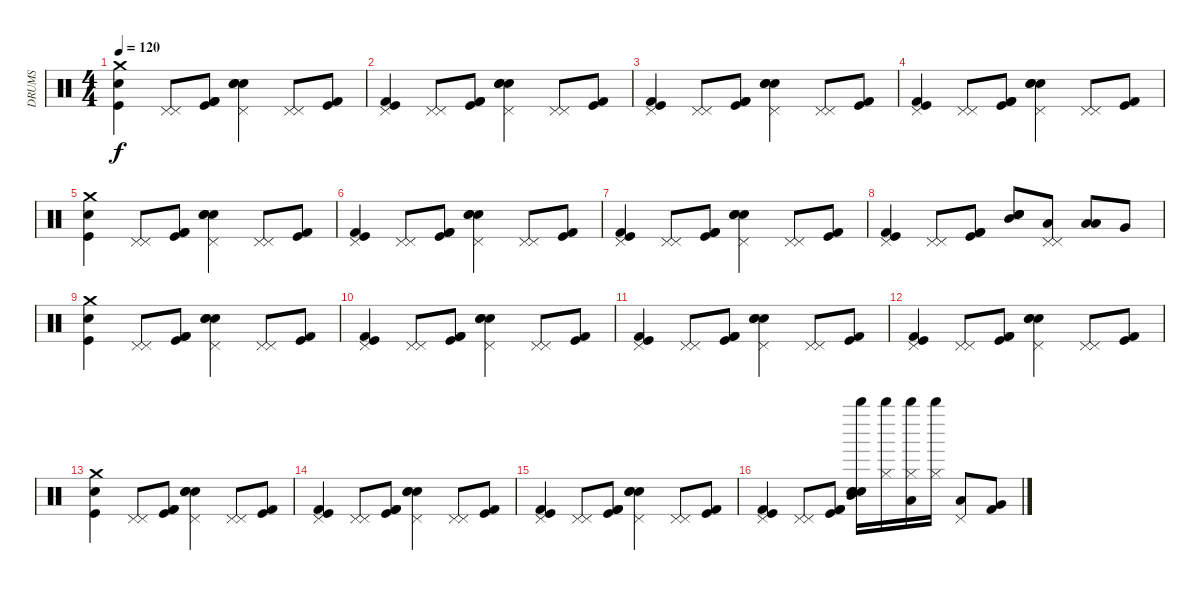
\track ("DRUMS" "DRUMS") {instrument percussion}
\staff {score}
\articulation defaults
\ts (4 4)
\tempo 120
\clef neutral
\ks c
("Crash medium (hit)" "Snare (hit) 2" "Kick (hit)").4{dy f} ("Pedal Hi-Hat (hit)" "Pedal Hi-Hat (hit)").8 ("Kick (hit) 2" "Kick (hit)" "Kick (hit) 2").8 ("Snare (hit) 2" "Snare (hit) 2" "Pedal Hi-Hat (hit)" "Electric Snare (hit)").4 ("Pedal Hi-Hat (hit)" "Pedal Hi-Hat (hit)").8 ("Kick (hit)" "Kick (hit) 2").8 |
("Pedal Hi-Hat (hit)" "Kick (hit) 2" "Kick (hit)").4 ("Pedal Hi-Hat (hit)" "Pedal Hi-Hat (hit)").8 ("Kick (hit) 2" "Kick (hit)" "Kick (hit) 2").8 ("Snare (hit) 2" "Snare (hit) 2" "Pedal Hi-Hat (hit)" "Electric Snare (hit)").4 ("Pedal Hi-Hat (hit)" "Pedal Hi-Hat (hit)").8 ("Kick (hit)" "Kick (hit) 2").8 |
("Pedal Hi-Hat (hit)" "Kick (hit) 2" "Kick (hit)").4 ("Pedal Hi-Hat (hit)" "Pedal Hi-Hat (hit)").8 ("Kick (hit) 2" "Kick (hit)" "Kick (hit) 2").8 ("Snare (hit) 2" "Snare (hit) 2" "Pedal Hi-Hat (hit)" "Electric Snare (hit)").4 ("Pedal Hi-Hat (hit)" "Pedal Hi-Hat (hit)").8 ("Kick (hit)" "Kick (hit) 2").8 |
("Pedal Hi-Hat (hit)" "Kick (hit) 2" "Kick (hit)").4 ("Pedal Hi-Hat (hit)" "Pedal Hi-Hat (hit)").8 ("Kick (hit) 2" "Kick (hit)" "Kick (hit) 2").8 ("Snare (hit) 2" "Snare (hit) 2" "Pedal Hi-Hat (hit)" "Electric Snare (hit)").4 ("Pedal Hi-Hat (hit)" "Pedal Hi-Hat (hit)").8 ("Kick (hit)" "Kick (hit) 2").8 |
("Crash medium (hit)" "Snare (hit) 2" "Kick (hit)").4 ("Pedal Hi-Hat (hit)" "Pedal Hi-Hat (hit)").8 ("Kick (hit) 2" "Kick (hit)" "Kick (hit) 2").8 ("Snare (hit) 2" "Snare (hit) 2" "Pedal Hi-Hat (hit)" "Electric Snare (hit)").4 ("Pedal Hi-Hat (hit)" "Pedal Hi-Hat (hit)").8 ("Kick (hit)" "Kick (hit) 2").8 |
("Pedal Hi-Hat (hit)" "Kick (hit) 2" "Kick (hit)").4 ("Pedal Hi-Hat (hit)" "Pedal Hi-Hat (hit)").8 ("Kick (hit) 2" "Kick (hit)" "Kick (hit) 2").8 ("Snare (hit) 2" "Snare (hit) 2" "Pedal Hi-Hat (hit)" "Electric Snare (hit)").4 ("Pedal Hi-Hat (hit)" "Pedal Hi-Hat (hit)").8 ("Kick (hit)" "Kick (hit) 2").8 |
("Pedal Hi-Hat (hit)" "Kick (hit) 2" "Kick (hit)").4 ("Pedal Hi-Hat (hit)" "Pedal Hi-Hat (hit)").8 ("Kick (hit) 2" "Kick (hit)" "Kick (hit) 2").8 ("Snare (hit) 2" "Snare (hit) 2" "Pedal Hi-Hat (hit)" "Electric Snare (hit)").4 ("Pedal Hi-Hat (hit)" "Pedal Hi-Hat (hit)").8 ("Kick (hit)" "Kick (hit) 2").8 |
("Pedal Hi-Hat (hit)" "Kick (hit) 2" "Kick (hit)").4 ("Pedal Hi-Hat (hit)" "Pedal Hi-Hat (hit)").8 ("Kick (hit) 2" "Kick (hit)" "Kick (hit) 2").8 ("Snare (hit) 2" "Snare (hit) 2" "Mid Tom (hit)" "Electric Snare (hit)").8 ("Pedal Hi-Hat (hit)" "Pedal Hi-Hat (hit)" "Low Tom (hit)").8 ("Low Floor Tom (hit)" "Low Floor Tom (hit)").8 "Very Low Tom (hit)".8 |
("Crash medium (hit)" "Snare (hit) 2" "Kick (hit)").4 ("Pedal Hi-Hat (hit)" "Pedal Hi-Hat (hit)").8 ("Kick (hit) 2" "Kick (hit)" "Kick (hit) 2").8 ("Snare (hit) 2" "Snare (hit) 2" "Pedal Hi-Hat (hit)" "Electric Snare (hit)").4 ("Pedal Hi-Hat (hit)" "Pedal Hi-Hat (hit)").8 ("Kick (hit)" "Kick (hit) 2").8 |
("Pedal Hi-Hat (hit)" "Kick (hit) 2" "Kick (hit)").4 ("Pedal Hi-Hat (hit)" "Pedal Hi-Hat (hit)").8 ("Kick (hit) 2" "Kick (hit)" "Kick (hit) 2").8 ("Snare (hit) 2" "Snare (hit) 2" "Pedal Hi-Hat (hit)" "Electric Snare (hit)").4 ("Pedal Hi-Hat (hit)" "Pedal Hi-Hat (hit)").8 ("Kick (hit)" "Kick (hit) 2").8 |
("Pedal Hi-Hat (hit)" "Kick (hit) 2" "Kick (hit)").4 ("Pedal Hi-Hat (hit)" "Pedal Hi-Hat (hit)").8 ("Kick (hit) 2" "Kick (hit)" "Kick (hit) 2").8 ("Snare (hit) 2" "Snare (hit) 2" "Pedal Hi-Hat (hit)" "Electric Snare (hit)").4 ("Pedal Hi-Hat (hit)" "Pedal Hi-Hat (hit)").8 ("Kick (hit)" "Kick (hit) 2").8 |
("Pedal Hi-Hat (hit)" "Kick (hit) 2" "Kick (hit)").4 ("Pedal Hi-Hat (hit)" "Pedal Hi-Hat (hit)").8 ("Kick (hit) 2" "Kick (hit)" "Kick (hit) 2").8 ("Snare (hit) 2" "Snare (hit) 2" "Pedal Hi-Hat (hit)" "Electric Snare (hit)").4 ("Pedal Hi-Hat (hit)" "Pedal Hi-Hat (hit)").8 ("Kick (hit)" "Kick (hit) 2").8 |
("Crash medium (hit)" "Snare (hit) 2" "Kick (hit)").4 ("Pedal Hi-Hat (hit)" "Pedal Hi-Hat (hit)").8 ("Kick (hit) 2" "Kick (hit)" "Kick (hit) 2").8 ("Snare (hit) 2" "Snare (hit) 2" "Pedal Hi-Hat (hit)" "Electric Snare (hit)").4 ("Pedal Hi-Hat (hit)" "Pedal Hi-Hat (hit)").8 ("Kick (hit)" "Kick (hit) 2").8 |
("Pedal Hi-Hat (hit)" "Kick (hit) 2" "Kick (hit)").4 ("Pedal Hi-Hat (hit)" "Pedal Hi-Hat (hit)").8 ("Kick (hit) 2" "Kick (hit)" "Kick (hit) 2").8 ("Snare (hit) 2" "Snare (hit) 2" "Pedal Hi-Hat (hit)" "Electric Snare (hit)").4 ("Pedal Hi-Hat (hit)" "Pedal Hi-Hat (hit)").8 ("Kick (hit)" "Kick (hit) 2").8 |
("Pedal Hi-Hat (hit)" "Kick (hit) 2" "Kick (hit)").4 ("Pedal Hi-Hat (hit)" "Pedal Hi-Hat (hit)").8 ("Kick (hit) 2" "Kick (hit)" "Kick (hit) 2").8 ("Snare (hit) 2" "Snare (hit) 2" "Pedal Hi-Hat (hit)" "Electric Snare (hit)").4 ("Pedal Hi-Hat (hit)" "Pedal Hi-Hat (hit)").8 ("Kick (hit)" "Kick (hit) 2").8 |
("Pedal Hi-Hat (hit)" "Kick (hit) 2" "Kick (hit)").4 ("Pedal Hi-Hat (hit)" "Pedal Hi-Hat (hit)").8 ("Kick (hit) 2" "Kick (hit)" "Kick (hit) 2").8 ("Snare (hit) 2" "Snare (hit) 2" "Mid Tom (hit)" "Electric Snare (hit)" "Whistle high (hit)").16{volume 14} ("Hi-Hat (closed)" "Whistle high (hit)").16{volume 11} ("Whistle high (hit)" "Hi-Hat (closed)" "Low Tom (hit)").16{volume 5} ("Whistle high (hit)" "Hi-Hat (closed)").16{volume 2} ("Pedal Hi-Hat (hit)" "Low Floor Tom (hit)").8{volume 14} ("Kick (hit) 2" "Very Low Tom (hit)").8
